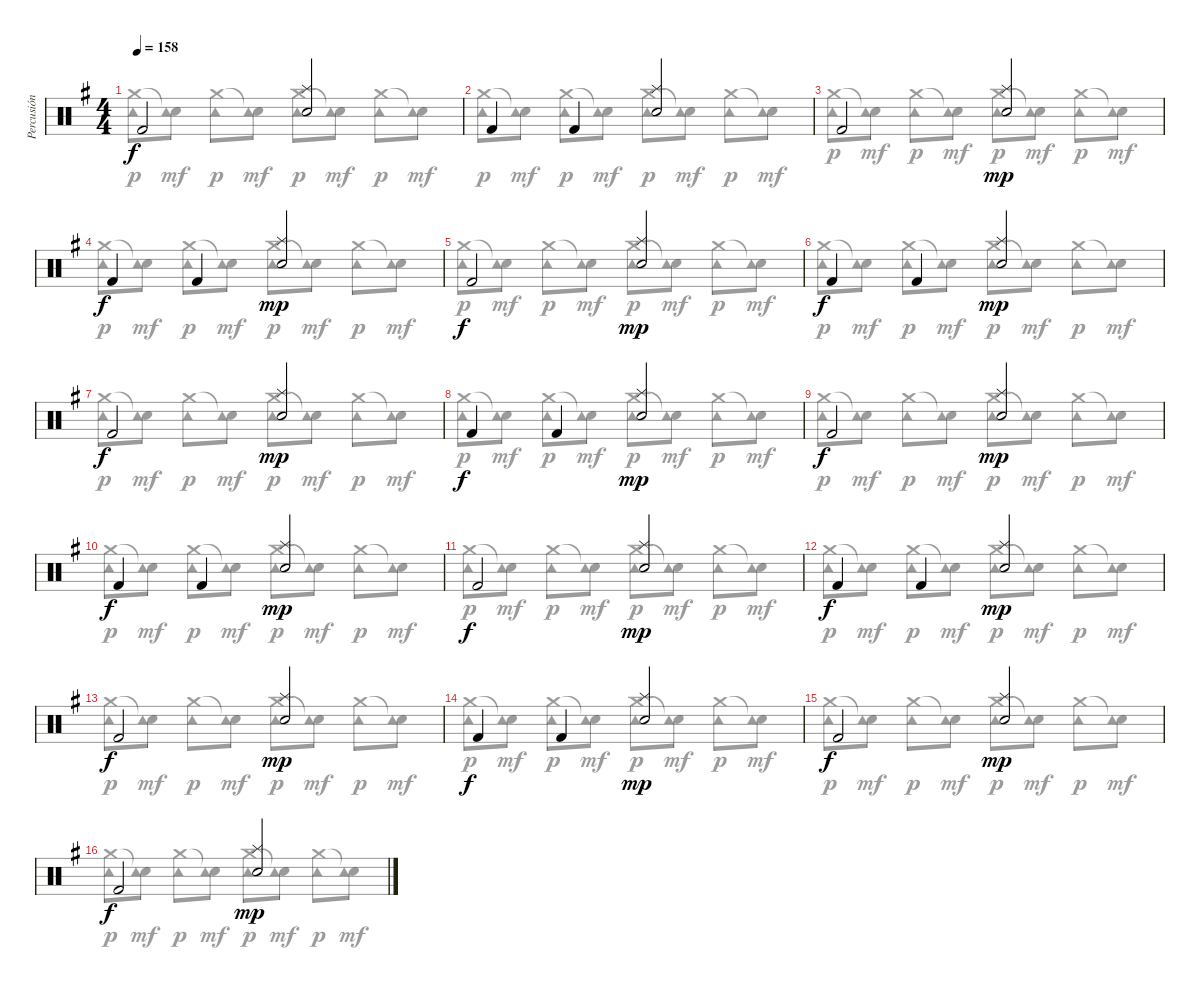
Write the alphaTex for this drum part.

\track ("Percusión" "Percusión") {instrument percussion}
\staff {score}
\articulation defaults
\voice
\ts (4 4)
\tempo 158
\clef neutral
\ks g "Kick (hit) 2".2{dy f}
("Splash (hit)" "Snare (hit) 2").2 |
"Kick (hit) 2".4 "Kick (hit) 2".4 ("Splash (hit)" "Snare (hit) 2").2 |
"Kick (hit) 2".2 ("Splash (hit)" "Snare (hit) 2").2{dy mp} |
"Kick (hit) 2".4{dy f} "Kick (hit) 2".4 ("Splash (hit)" "Snare (hit) 2").2{dy mp} |
"Kick (hit) 2".2{dy f} ("Splash (hit)" "Snare (hit) 2").2{dy mp} |
"Kick (hit) 2".4{dy f} "Kick (hit) 2".4 ("Splash (hit)" "Snare (hit) 2").2{dy mp} |
"Kick (hit) 2".2{dy f} ("Splash (hit)" "Snare (hit) 2").2{dy mp} |
"Kick (hit) 2".4{dy f} "Kick (hit) 2".4 ("Splash (hit)" "Snare (hit) 2").2{dy mp} |
"Kick (hit) 2".2{dy f} ("Splash (hit)" "Snare (hit) 2").2{dy mp} |
"Kick (hit) 2".4{dy f} "Kick (hit) 2".4 ("Splash (hit)" "Snare (hit) 2").2{dy mp} |
"Kick (hit) 2".2{dy f} ("Splash (hit)" "Snare (hit) 2").2{dy mp} |
"Kick (hit) 2".4{dy f} "Kick (hit) 2".4 ("Splash (hit)" "Snare (hit) 2").2{dy mp} |
"Kick (hit) 2".2{dy f} ("Splash (hit)" "Snare (hit) 2").2{dy mp} |
"Kick (hit) 2".4{dy f} "Kick (hit) 2".4 ("Splash (hit)" "Snare (hit) 2").2{dy mp} |
"Kick (hit) 2".2{dy f} ("Splash (hit)" "Snare (hit) 2").2{dy mp} |
"Kick (hit) 2".2{dy f} ("Splash (hit)" "Snare (hit) 2").2{dy mp}
\voice
\clef neutral
\ottava regular
\simile none
\ks g
("Crash medium (hit)" "Tambourine (hit)").8{dy p} ("Snare (hit)"{t} "Tambourine (hit)").8{dy mf} ("Crash medium (hit)" "Tambourine (hit)").8{dy p} ("Snare (hit)"{t} "Tambourine (hit)").8{dy mf} ("Crash medium (hit)" "Tambourine (hit)").8{dy p} ("Snare (hit)"{t} "Tambourine (hit)").8{dy mf} ("Crash medium (hit)" "Tambourine (hit)").8{dy p} ("Snare (hit)"{t} "Tambourine (hit)").8{dy mf} |
("Crash medium (hit)" "Tambourine (hit)").8{dy p} ("Snare (hit)"{t} "Tambourine (hit)").8{dy mf} ("Crash medium (hit)" "Tambourine (hit)").8{dy p} ("Snare (hit)"{t} "Tambourine (hit)").8{dy mf} ("Crash medium (hit)" "Tambourine (hit)").8{dy p} ("Snare (hit)"{t} "Tambourine (hit)").8{dy mf} ("Crash medium (hit)" "Tambourine (hit)").8{dy p} ("Snare (hit)"{t} "Tambourine (hit)").8{dy mf} |
("Crash medium (hit)" "Tambourine (hit)").8{dy p} ("Snare (hit)"{t} "Tambourine (hit)").8{dy mf} ("Crash medium (hit)" "Tambourine (hit)").8{dy p} ("Snare (hit)"{t} "Tambourine (hit)").8{dy mf} ("Crash medium (hit)" "Tambourine (hit)").8{dy p} ("Snare (hit)"{t} "Tambourine (hit)").8{dy mf} ("Crash medium (hit)" "Tambourine (hit)").8{dy p} ("Snare (hit)"{t} "Tambourine (hit)").8{dy mf} |
("Crash medium (hit)" "Tambourine (hit)").8{dy p} ("Snare (hit)"{t} "Tambourine (hit)").8{dy mf} ("Crash medium (hit)" "Tambourine (hit)").8{dy p} ("Snare (hit)"{t} "Tambourine (hit)").8{dy mf} ("Crash medium (hit)" "Tambourine (hit)").8{dy p} ("Snare (hit)"{t} "Tambourine (hit)").8{dy mf} ("Crash medium (hit)" "Tambourine (hit)").8{dy p} ("Snare (hit)"{t} "Tambourine (hit)").8{dy mf} |
("Crash medium (hit)" "Tambourine (hit)").8{dy p} ("Snare (hit)"{t} "Tambourine (hit)").8{dy mf} ("Crash medium (hit)" "Tambourine (hit)").8{dy p} ("Snare (hit)"{t} "Tambourine (hit)").8{dy mf} ("Crash medium (hit)" "Tambourine (hit)").8{dy p} ("Snare (hit)"{t} "Tambourine (hit)").8{dy mf} ("Crash medium (hit)" "Tambourine (hit)").8{dy p} ("Snare (hit)"{t} "Tambourine (hit)").8{dy mf} |
("Crash medium (hit)" "Tambourine (hit)").8{dy p} ("Snare (hit)"{t} "Tambourine (hit)").8{dy mf} ("Crash medium (hit)" "Tambourine (hit)").8{dy p} ("Snare (hit)"{t} "Tambourine (hit)").8{dy mf} ("Crash medium (hit)" "Tambourine (hit)").8{dy p} ("Snare (hit)"{t} "Tambourine (hit)").8{dy mf} ("Crash medium (hit)" "Tambourine (hit)").8{dy p} ("Snare (hit)"{t} "Tambourine (hit)").8{dy mf} |
("Crash medium (hit)" "Tambourine (hit)").8{dy p} ("Snare (hit)"{t} "Tambourine (hit)").8{dy mf} ("Crash medium (hit)" "Tambourine (hit)").8{dy p} ("Snare (hit)"{t} "Tambourine (hit)").8{dy mf} ("Crash medium (hit)" "Tambourine (hit)").8{dy p} ("Snare (hit)"{t} "Tambourine (hit)").8{dy mf} ("Crash medium (hit)" "Tambourine (hit)").8{dy p} ("Snare (hit)"{t} "Tambourine (hit)").8{dy mf} |
("Crash medium (hit)" "Tambourine (hit)").8{dy p} ("Snare (hit)"{t} "Tambourine (hit)").8{dy mf} ("Crash medium (hit)" "Tambourine (hit)").8{dy p} ("Snare (hit)"{t} "Tambourine (hit)").8{dy mf} ("Crash medium (hit)" "Tambourine (hit)").8{dy p} ("Snare (hit)"{t} "Tambourine (hit)").8{dy mf} ("Crash medium (hit)" "Tambourine (hit)").8{dy p} ("Snare (hit)"{t} "Tambourine (hit)").8{dy mf} |
("Crash medium (hit)" "Tambourine (hit)").8{dy p} ("Snare (hit)"{t} "Tambourine (hit)").8{dy mf} ("Crash medium (hit)" "Tambourine (hit)").8{dy p} ("Snare (hit)"{t} "Tambourine (hit)").8{dy mf} ("Crash medium (hit)" "Tambourine (hit)").8{dy p} ("Snare (hit)"{t} "Tambourine (hit)").8{dy mf} ("Crash medium (hit)" "Tambourine (hit)").8{dy p} ("Snare (hit)"{t} "Tambourine (hit)").8{dy mf} |
("Crash medium (hit)" "Tambourine (hit)").8{dy p} ("Snare (hit)"{t} "Tambourine (hit)").8{dy mf} ("Crash medium (hit)" "Tambourine (hit)").8{dy p} ("Snare (hit)"{t} "Tambourine (hit)").8{dy mf} ("Crash medium (hit)" "Tambourine (hit)").8{dy p} ("Snare (hit)"{t} "Tambourine (hit)").8{dy mf} ("Crash medium (hit)" "Tambourine (hit)").8{dy p} ("Snare (hit)"{t} "Tambourine (hit)").8{dy mf} |
("Crash medium (hit)" "Tambourine (hit)").8{dy p} ("Snare (hit)"{t} "Tambourine (hit)").8{dy mf} ("Crash medium (hit)" "Tambourine (hit)").8{dy p} ("Snare (hit)"{t} "Tambourine (hit)").8{dy mf} ("Crash medium (hit)" "Tambourine (hit)").8{dy p} ("Snare (hit)"{t} "Tambourine (hit)").8{dy mf} ("Crash medium (hit)" "Tambourine (hit)").8{dy p} ("Snare (hit)"{t} "Tambourine (hit)").8{dy mf} |
("Crash medium (hit)" "Tambourine (hit)").8{dy p} ("Snare (hit)"{t} "Tambourine (hit)").8{dy mf} ("Crash medium (hit)" "Tambourine (hit)").8{dy p} ("Snare (hit)"{t} "Tambourine (hit)").8{dy mf} ("Crash medium (hit)" "Tambourine (hit)").8{dy p} ("Snare (hit)"{t} "Tambourine (hit)").8{dy mf} ("Crash medium (hit)" "Tambourine (hit)").8{dy p} ("Snare (hit)"{t} "Tambourine (hit)").8{dy mf} |
("Crash medium (hit)" "Tambourine (hit)").8{dy p} ("Snare (hit)"{t} "Tambourine (hit)").8{dy mf} ("Crash medium (hit)" "Tambourine (hit)").8{dy p} ("Snare (hit)"{t} "Tambourine (hit)").8{dy mf} ("Crash medium (hit)" "Tambourine (hit)").8{dy p} ("Snare (hit)"{t} "Tambourine (hit)").8{dy mf} ("Crash medium (hit)" "Tambourine (hit)").8{dy p} ("Snare (hit)"{t} "Tambourine (hit)").8{dy mf} |
("Crash medium (hit)" "Tambourine (hit)").8{dy p} ("Snare (hit)"{t} "Tambourine (hit)").8{dy mf} ("Crash medium (hit)" "Tambourine (hit)").8{dy p} ("Snare (hit)"{t} "Tambourine (hit)").8{dy mf} ("Crash medium (hit)" "Tambourine (hit)").8{dy p} ("Snare (hit)"{t} "Tambourine (hit)").8{dy mf} ("Crash medium (hit)" "Tambourine (hit)").8{dy p} ("Snare (hit)"{t} "Tambourine (hit)").8{dy mf} |
("Crash medium (hit)" "Tambourine (hit)").8{dy p} ("Snare (hit)"{t} "Tambourine (hit)").8{dy mf} ("Crash medium (hit)" "Tambourine (hit)").8{dy p} ("Snare (hit)"{t} "Tambourine (hit)").8{dy mf} ("Crash medium (hit)" "Tambourine (hit)").8{dy p} ("Snare (hit)"{t} "Tambourine (hit)").8{dy mf} ("Crash medium (hit)" "Tambourine (hit)").8{dy p} ("Snare (hit)"{t} "Tambourine (hit)").8{dy mf} |
("Crash medium (hit)" "Tambourine (hit)").8{dy p} ("Snare (hit)"{t} "Tambourine (hit)").8{dy mf} ("Crash medium (hit)" "Tambourine (hit)").8{dy p} ("Snare (hit)"{t} "Tambourine (hit)").8{dy mf} ("Crash medium (hit)" "Tambourine (hit)").8{dy p} ("Snare (hit)"{t} "Tambourine (hit)").8{dy mf} ("Crash medium (hit)" "Tambourine (hit)").8{dy p} ("Snare (hit)"{t} "Tambourine (hit)").8{dy mf}
